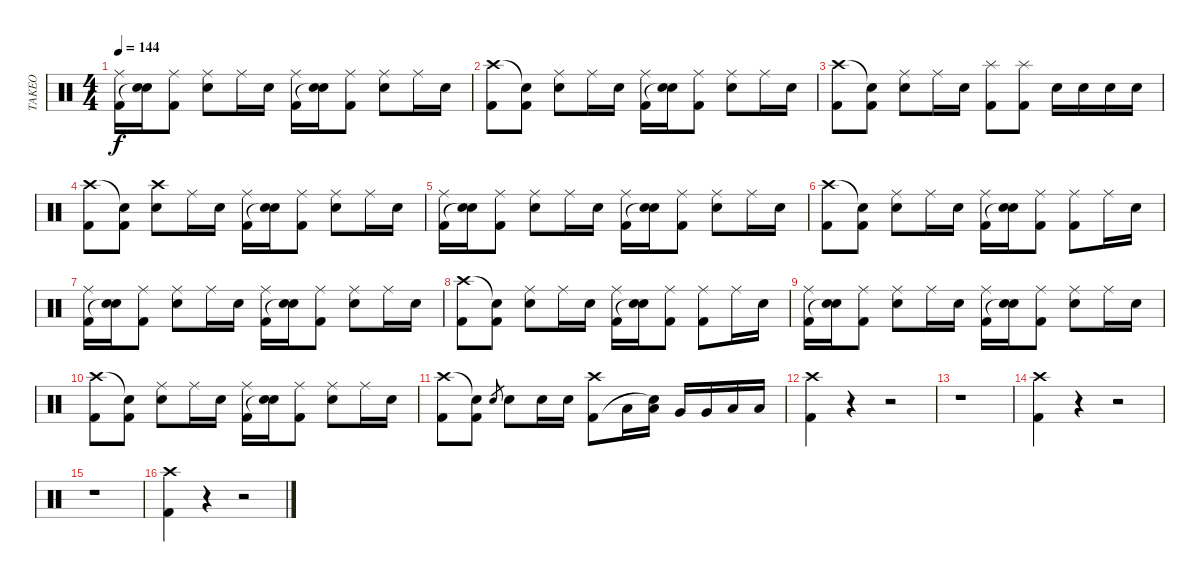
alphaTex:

\track ("TAKEO" "TAKEO") {instrument percussion}
\staff {score}
\articulation defaults
\ts (4 4)
\tempo 144
\clef neutral
\ks c
("Ride (middle)" "Kick (hit) 2").16{dy f} ("Electric Snare (hit)" "Snare (hit)"{t}).16 ("Ride (middle)" "Kick (hit) 2").8 ("Ride (middle)" "Electric Snare (hit)").8 "Ride (middle)".16 "Electric Snare (hit)".16 ("Ride (middle)" "Kick (hit) 2").16 ("Electric Snare (hit)" "Snare (hit)"{t}).16 ("Ride (middle)" "Kick (hit) 2").8 ("Ride (middle)" "Electric Snare (hit)").8 "Ride (middle)".16 "Electric Snare (hit)".16 |
("Crash high (hit)" "Kick (hit) 2").8 ("Snare (hit)"{t} "Kick (hit) 2").8 ("Ride (middle)" "Electric Snare (hit)").8 "Ride (middle)".16 "Electric Snare (hit)".16 ("Ride (middle)" "Kick (hit) 2").16 ("Electric Snare (hit)" "Snare (hit)"{t}).16 ("Ride (middle)" "Kick (hit) 2").8 ("Ride (middle)" "Electric Snare (hit)").8 "Ride (middle)".16 "Electric Snare (hit)".16 |
("Crash high (hit)" "Kick (hit) 2").8 ("Snare (hit)"{t} "Kick (hit) 2").8 ("Ride (middle)" "Electric Snare (hit)").8 "Ride (middle)".16 "Electric Snare (hit)".16 ("Splash (hit)" "Kick (hit) 2").8 ("Splash (hit)" "Kick (hit) 2").8 "Electric Snare (hit)".16 "Electric Snare (hit)".16 "Electric Snare (hit)".16 "Electric Snare (hit)".16 |
("Crash high (hit)" "Kick (hit) 2").8 ("Snare (hit)"{t} "Kick (hit) 2").8 ("Crash high (hit)" "Electric Snare (hit)").8 "Ride (middle)".16 "Electric Snare (hit)".16 ("Ride (middle)" "Kick (hit) 2").16 ("Electric Snare (hit)" "Snare (hit)"{t}).16 ("Ride (middle)" "Kick (hit) 2").8 ("Ride (middle)" "Electric Snare (hit)").8 "Ride (middle)".16 "Electric Snare (hit)".16 |
("Ride (middle)" "Kick (hit) 2").16 ("Electric Snare (hit)" "Snare (hit)"{t}).16 ("Ride (middle)" "Kick (hit) 2").8 ("Ride (middle)" "Electric Snare (hit)").8 "Ride (middle)".16 "Electric Snare (hit)".16 ("Ride (middle)" "Kick (hit) 2").16 ("Electric Snare (hit)" "Snare (hit)"{t}).16 ("Ride (middle)" "Kick (hit) 2").8 ("Ride (middle)" "Electric Snare (hit)").8 "Ride (middle)".16 "Electric Snare (hit)".16 |
("Crash high (hit)" "Kick (hit) 2").8 ("Snare (hit)"{t} "Kick (hit) 2").8 ("Ride (middle)" "Electric Snare (hit)").8 "Ride (middle)".16 "Electric Snare (hit)".16 ("Ride (middle)" "Kick (hit) 2").16 ("Electric Snare (hit)" "Snare (hit)"{t}).16 ("Ride (middle)" "Kick (hit) 2").8 ("Ride (middle)" "Kick (hit) 2").8 "Ride (middle)".16 "Electric Snare (hit)".16 |
("Ride (middle)" "Kick (hit) 2").16 ("Electric Snare (hit)" "Snare (hit)"{t}).16 ("Ride (middle)" "Kick (hit) 2").8 ("Ride (middle)" "Electric Snare (hit)").8 "Ride (middle)".16 "Electric Snare (hit)".16 ("Ride (middle)" "Kick (hit) 2").16 ("Electric Snare (hit)" "Snare (hit)"{t}).16 ("Ride (middle)" "Kick (hit) 2").8 ("Ride (middle)" "Electric Snare (hit)").8 "Ride (middle)".16 "Electric Snare (hit)".16 |
("Crash high (hit)" "Kick (hit) 2").8 ("Snare (hit)"{t} "Kick (hit) 2").8 ("Ride (middle)" "Electric Snare (hit)").8 "Ride (middle)".16 "Electric Snare (hit)".16 ("Ride (middle)" "Kick (hit) 2").16 ("Electric Snare (hit)" "Snare (hit)"{t}).16 ("Ride (middle)" "Kick (hit) 2").8 ("Ride (middle)" "Kick (hit) 2").8 "Ride (middle)".16 "Electric Snare (hit)".16 |
("Ride (middle)" "Kick (hit) 2").16 ("Electric Snare (hit)" "Snare (hit)"{t}).16 ("Ride (middle)" "Kick (hit) 2").8 ("Ride (middle)" "Electric Snare (hit)").8 "Ride (middle)".16 "Electric Snare (hit)".16 ("Ride (middle)" "Kick (hit) 2").16 ("Electric Snare (hit)" "Snare (hit)"{t}).16 ("Ride (middle)" "Kick (hit) 2").8 ("Ride (middle)" "Electric Snare (hit)").8 "Ride (middle)".16 "Electric Snare (hit)".16 |
("Crash high (hit)" "Kick (hit) 2").8 ("Snare (hit)"{t} "Kick (hit) 2").8 ("Ride (middle)" "Electric Snare (hit)").8 "Ride (middle)".16 "Electric Snare (hit)".16 ("Ride (middle)" "Kick (hit) 2").16 ("Electric Snare (hit)" "Snare (hit)"{t}).16 ("Ride (middle)" "Kick (hit) 2").8 ("Ride (middle)" "Electric Snare (hit)").8 "Ride (middle)".16 "Electric Snare (hit)".16 |
("Crash high (hit)" "Kick (hit) 2").8 ("Snare (hit)"{t} "Kick (hit) 2").8 "Electric Snare (hit)".8{gr} "Electric Snare (hit)".8 "Electric Snare (hit)".16 "Electric Snare (hit)".16 ("Crash high (hit)" "Kick (hit) 2").8 "Low Tom (hit)".16 ("Low Tom (hit)" "Snare (hit)"{t}).16 "Very Low Tom (hit)".16 "Very Low Tom (hit)".16 "Low Floor Tom (hit)".16 "Low Floor Tom (hit)".16 |
("Crash high (hit)" "Kick (hit) 2").4 r.4 r.2 |
r.1 |
("Crash high (hit)" "Kick (hit) 2").4 r.4 r.2 |
r.1 |
("Crash high (hit)" "Kick (hit) 2").4 r.4 r.2
